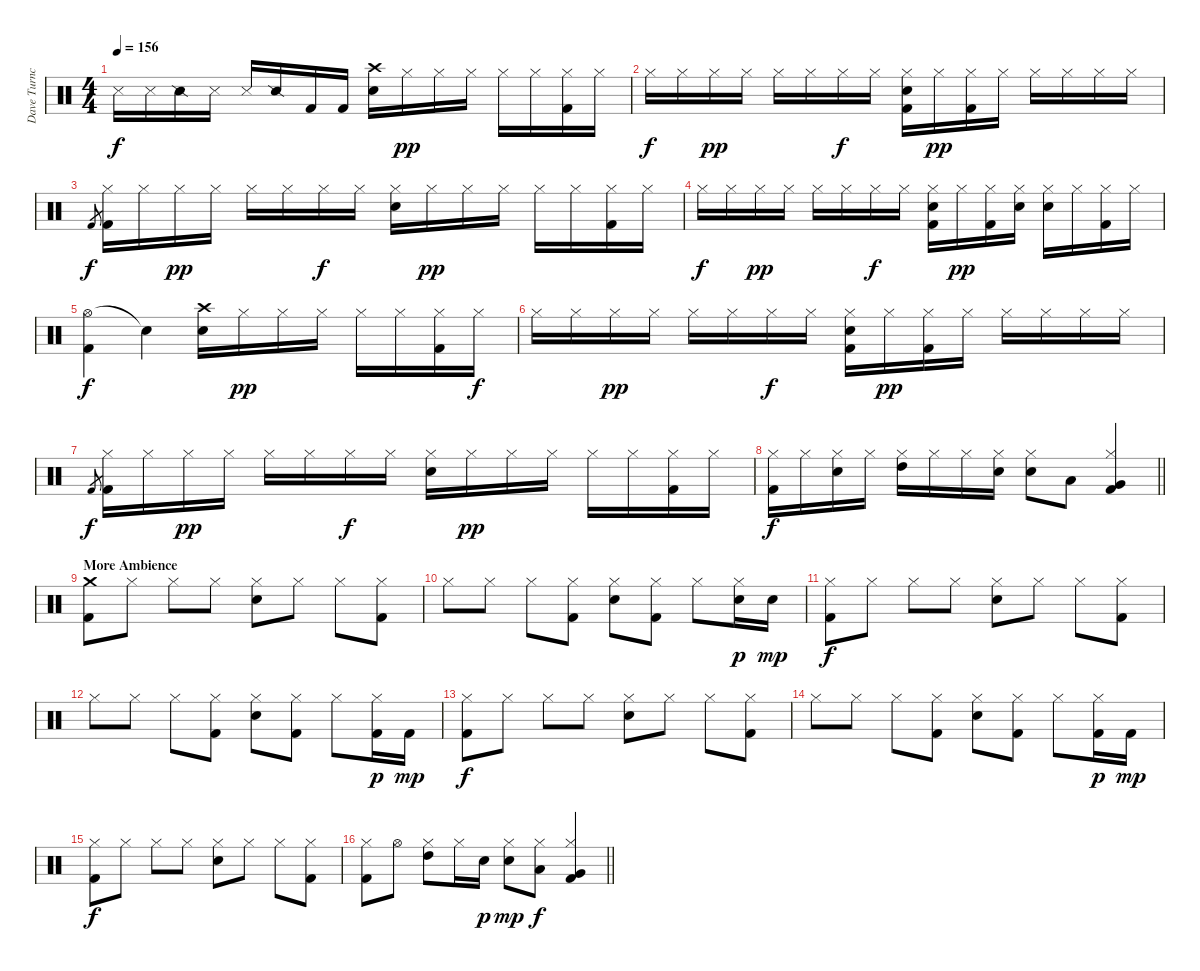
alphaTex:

\track ("Dave Turncrantz" "Dave Turnc") {instrument percussion}
\staff {score}
\articulation defaults
\ts (4 4)
\section ("" "")
\tempo 156
\clef neutral
\ks c "Snare (side stick) 3".16{dy f} "Snare (side stick) 3".16 "Snare (side stick) 2".16 "Snare (side stick) 3".16 "Snare (side stick) 3".16 "Snare (side stick) 2".16 "Kick (hit) 2".16 "Kick (hit) 2".16
("Crash high (hit)" "Electric Snare (hit)").16 "Hi-Hat (closed)".16{dy pp} "Hi-Hat (closed)".16 "Hi-Hat (closed)".16 "Hi-Hat (closed)".16 "Hi-Hat (closed)".16 ("Hi-Hat (closed)" "Kick (hit) 2").16 "Hi-Hat (closed)".16 |
"Hi-Hat (closed)".16{dy f} "Hi-Hat (closed)".16 "Hi-Hat (closed)".16{dy pp} "Hi-Hat (closed)".16 "Hi-Hat (closed)".16 "Hi-Hat (closed)".16 "Hi-Hat (closed)".16{dy f} "Hi-Hat (closed)".16 ("Hi-Hat (closed)" "Electric Snare (hit)" "Kick (hit) 2").16 "Hi-Hat (closed)".16{dy pp} ("Hi-Hat (closed)" "Kick (hit) 2").16 "Hi-Hat (closed)".16 "Hi-Hat (closed)".16 "Hi-Hat (closed)".16 "Hi-Hat (closed)".16 "Hi-Hat (closed)".16 |
"Kick (hit) 2".8{gr dy f} ("Hi-Hat (closed)" "Kick (hit) 2").16 "Hi-Hat (closed)".16 "Hi-Hat (closed)".16{dy pp} "Hi-Hat (closed)".16 "Hi-Hat (closed)".16 "Hi-Hat (closed)".16 "Hi-Hat (closed)".16{dy f} "Hi-Hat (closed)".16 ("Hi-Hat (closed)" "Electric Snare (hit)").16 "Hi-Hat (closed)".16{dy pp} "Hi-Hat (closed)".16 "Hi-Hat (closed)".16 "Hi-Hat (closed)".16 "Hi-Hat (closed)".16 ("Hi-Hat (closed)" "Kick (hit) 2").16 "Hi-Hat (closed)".16 |
"Hi-Hat (closed)".16{dy f} "Hi-Hat (closed)".16 "Hi-Hat (closed)".16{dy pp} "Hi-Hat (closed)".16 "Hi-Hat (closed)".16 "Hi-Hat (closed)".16 "Hi-Hat (closed)".16{dy f} "Hi-Hat (closed)".16 ("Hi-Hat (closed)" "Electric Snare (hit)" "Kick (hit) 2").16 "Hi-Hat (closed)".16{dy pp} ("Hi-Hat (closed)" "Kick (hit) 2").16 ("Hi-Hat (closed)" "Electric Snare (hit)").16 ("Hi-Hat (closed)" "Electric Snare (hit)").16 "Hi-Hat (closed)".16 ("Hi-Hat (closed)" "Kick (hit) 2").16 "Hi-Hat (closed)".16 |
("Hi-Hat (open)" "Kick (hit) 2").4{dy f} "Snare (hit)"{t}.4 ("Crash high (hit)" "Electric Snare (hit)").16 "Hi-Hat (closed)".16{dy pp} "Hi-Hat (closed)".16 "Hi-Hat (closed)".16 "Hi-Hat (closed)".16 "Hi-Hat (closed)".16 ("Hi-Hat (closed)" "Kick (hit) 2").16 "Hi-Hat (closed)".16{dy f} |
"Hi-Hat (closed)".16 "Hi-Hat (closed)".16 "Hi-Hat (closed)".16{dy pp} "Hi-Hat (closed)".16 "Hi-Hat (closed)".16 "Hi-Hat (closed)".16 "Hi-Hat (closed)".16{dy f} "Hi-Hat (closed)".16 ("Hi-Hat (closed)" "Electric Snare (hit)" "Kick (hit) 2").16 "Hi-Hat (closed)".16{dy pp} ("Hi-Hat (closed)" "Kick (hit) 2").16 "Hi-Hat (closed)".16 "Hi-Hat (closed)".16 "Hi-Hat (closed)".16 "Hi-Hat (closed)".16 "Hi-Hat (closed)".16 |
"Kick (hit) 2".8{gr dy f} ("Hi-Hat (closed)" "Kick (hit) 2").16 "Hi-Hat (closed)".16 "Hi-Hat (closed)".16{dy pp} "Hi-Hat (closed)".16 "Hi-Hat (closed)".16 "Hi-Hat (closed)".16 "Hi-Hat (closed)".16{dy f} "Hi-Hat (closed)".16 ("Hi-Hat (closed)" "Electric Snare (hit)").16 "Hi-Hat (closed)".16{dy pp} "Hi-Hat (closed)".16 "Hi-Hat (closed)".16 "Hi-Hat (closed)".16 "Hi-Hat (closed)".16 ("Hi-Hat (closed)" "Kick (hit) 2").16 "Hi-Hat (closed)".16 |
\barLineRight lightlight
("Hi-Hat (closed)" "Kick (hit) 2").16{dy f} "Hi-Hat (closed)".16 ("Hi-Hat (closed)" "Electric Snare (hit)").16 "Hi-Hat (closed)".16 ("Hi-Hat (closed)" "High Tom (hit)").16 "Hi-Hat (closed)".16 "Hi-Hat (closed)".16 ("Hi-Hat (closed)" "Electric Snare (hit)").16 ("Hi-Hat (closed)" "Electric Snare (hit)").8 "Low Tom (hit)".8 ("Hi-Hat (closed)" "Very Low Tom (hit)" "Kick (hit) 2").4 |
\section ("" "More Ambience")
("Crash medium (hit)" "Kick (hit) 2").8 "Hi-Hat (closed)".8 "Hi-Hat (closed)".8 "Hi-Hat (closed)".8 ("Hi-Hat (closed)" "Electric Snare (hit)").8 "Hi-Hat (closed)".8 "Hi-Hat (closed)".8 ("Hi-Hat (closed)" "Kick (hit) 2").8 |
"Hi-Hat (closed)".8 "Hi-Hat (closed)".8 "Hi-Hat (closed)".8 ("Hi-Hat (closed)" "Kick (hit) 2").8 ("Hi-Hat (closed)" "Electric Snare (hit)").8 ("Hi-Hat (closed)" "Kick (hit) 2").8 "Hi-Hat (closed)".8 ("Hi-Hat (closed)" "Electric Snare (hit)").16{dy p} "Electric Snare (hit)".16{dy mp} |
("Hi-Hat (closed)" "Kick (hit) 2").8{dy f} "Hi-Hat (closed)".8 "Hi-Hat (closed)".8 "Hi-Hat (closed)".8 ("Hi-Hat (closed)" "Electric Snare (hit)").8 "Hi-Hat (closed)".8 "Hi-Hat (closed)".8 ("Hi-Hat (closed)" "Kick (hit) 2").8 |
"Hi-Hat (closed)".8 "Hi-Hat (closed)".8 "Hi-Hat (closed)".8 ("Hi-Hat (closed)" "Kick (hit) 2").8 ("Hi-Hat (closed)" "Electric Snare (hit)").8 ("Hi-Hat (closed)" "Kick (hit) 2").8 "Hi-Hat (closed)".8 ("Hi-Hat (closed)" "Kick (hit) 2").16{dy p} "Kick (hit) 2".16{dy mp} |
("Hi-Hat (closed)" "Kick (hit) 2").8{dy f} "Hi-Hat (closed)".8 "Hi-Hat (closed)".8 "Hi-Hat (closed)".8 ("Hi-Hat (closed)" "Electric Snare (hit)").8 "Hi-Hat (closed)".8 "Hi-Hat (closed)".8 ("Hi-Hat (closed)" "Kick (hit) 2").8 |
"Hi-Hat (closed)".8 "Hi-Hat (closed)".8 "Hi-Hat (closed)".8 ("Hi-Hat (closed)" "Kick (hit) 2").8 ("Hi-Hat (closed)" "Electric Snare (hit)").8 ("Hi-Hat (closed)" "Kick (hit) 2").8 "Hi-Hat (closed)".8 ("Hi-Hat (closed)" "Kick (hit) 2").16{dy p} "Kick (hit) 2".16{dy mp} |
("Hi-Hat (closed)" "Kick (hit) 2").8{dy f} "Hi-Hat (closed)".8 "Hi-Hat (closed)".8 "Hi-Hat (closed)".8 ("Hi-Hat (closed)" "Electric Snare (hit)").8 "Hi-Hat (closed)".8 "Hi-Hat (closed)".8 ("Hi-Hat (closed)" "Kick (hit) 2").8 |
\barLineRight lightlight
("Hi-Hat (closed)" "Kick (hit) 2").8 "Hi-Hat (open)".8 ("Hi-Hat (closed)" "High Tom (hit)").8 "Hi-Hat (closed)".16 "Electric Snare (hit)".16{dy p} ("Hi-Hat (closed)" "Electric Snare (hit)").8{dy mp} ("Hi-Hat (closed)" "Low Tom (hit)").8{dy f} ("Hi-Hat (closed)" "Very Low Tom (hit)" "Kick (hit) 2").4
